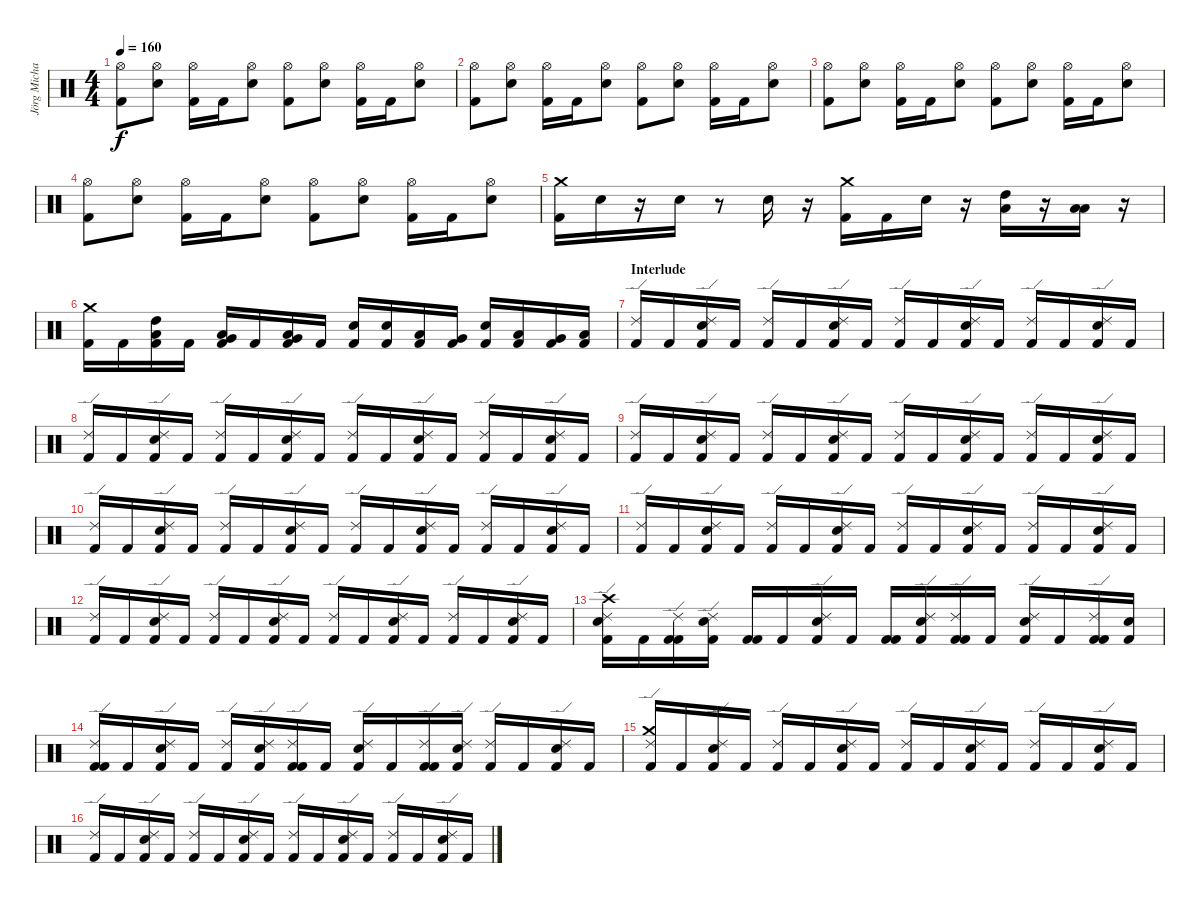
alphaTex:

\track ("Jörg Michael" "Jörg Micha") {instrument percussion}
\staff {score}
\articulation defaults
\ts (4 4)
\tempo 160
\clef neutral
\ks c
("Hi-Hat (open)" "Kick (hit) 2").8{dy f} ("Hi-Hat (open)" "Electric Snare (hit)").8 ("Hi-Hat (open)" "Kick (hit) 2").16 "Kick (hit) 2".16 ("Hi-Hat (open)" "Electric Snare (hit)").8 ("Hi-Hat (open)" "Kick (hit) 2").8 ("Hi-Hat (open)" "Electric Snare (hit)").8 ("Hi-Hat (open)" "Kick (hit) 2").16 "Kick (hit) 2".16 ("Hi-Hat (open)" "Electric Snare (hit)").8 |
("Hi-Hat (open)" "Kick (hit) 2").8 ("Hi-Hat (open)" "Electric Snare (hit)").8 ("Hi-Hat (open)" "Kick (hit) 2").16 "Kick (hit) 2".16 ("Hi-Hat (open)" "Electric Snare (hit)").8 ("Hi-Hat (open)" "Kick (hit) 2").8 ("Hi-Hat (open)" "Electric Snare (hit)").8 ("Hi-Hat (open)" "Kick (hit) 2").16 "Kick (hit) 2".16 ("Hi-Hat (open)" "Electric Snare (hit)").8 |
("Hi-Hat (open)" "Kick (hit) 2").8 ("Hi-Hat (open)" "Electric Snare (hit)").8 ("Hi-Hat (open)" "Kick (hit) 2").16 "Kick (hit) 2".16 ("Hi-Hat (open)" "Electric Snare (hit)").8 ("Hi-Hat (open)" "Kick (hit) 2").8 ("Hi-Hat (open)" "Electric Snare (hit)").8 ("Hi-Hat (open)" "Kick (hit) 2").16 "Kick (hit) 2".16 ("Hi-Hat (open)" "Electric Snare (hit)").8 |
("Hi-Hat (open)" "Kick (hit) 2").8 ("Hi-Hat (open)" "Electric Snare (hit)").8 ("Hi-Hat (open)" "Kick (hit) 2").16 "Kick (hit) 2".16 ("Hi-Hat (open)" "Electric Snare (hit)").8 ("Hi-Hat (open)" "Kick (hit) 2").8 ("Hi-Hat (open)" "Electric Snare (hit)").8 ("Hi-Hat (open)" "Kick (hit) 2").16 "Kick (hit) 2".16 ("Hi-Hat (open)" "Electric Snare (hit)").8 |
("Crash medium (hit)" "Kick (hit) 2").16 "Electric Snare (hit)".16 r.16 "Electric Snare (hit)".16 r.8 "Electric Snare (hit)".16 r.16 ("Crash medium (hit)" "Kick (hit) 2").16 "Kick (hit) 2".16 "Electric Snare (hit)".16 r.16 ("High Tom (hit)" "Low Tom (hit)").16 r.16 ("Low Floor Tom (hit)" "Low Tom (hit)").16 r.16 |
("Crash medium (hit)" "Kick (hit) 2").16 "Kick (hit) 2".16 ("Low Tom (hit)" "High Tom (hit)" "Kick (hit) 2").16 "Kick (hit) 2".16 ("Low Tom (hit)" "Very Low Tom (hit)" "Kick (hit) 2").16 "Kick (hit) 2".16 ("Very Low Tom (hit)" "Low Floor Tom (hit)" "Kick (hit) 2").16 "Kick (hit) 2".16 ("Electric Snare (hit)" "Kick (hit) 2").16 ("Electric Snare (hit)" "Kick (hit) 2").16 ("Low Tom (hit)" "Kick (hit) 2").16 ("Very Low Tom (hit)" "Kick (hit) 2").16 ("Electric Snare (hit)" "Kick (hit) 2").16 ("Low Tom (hit)" "Kick (hit) 2").16 ("Very Low Tom (hit)" "Kick (hit) 2").16 ("Low Floor Tom (hit)" "Kick (hit) 2").16 |
\section ("" "Interlude")
("Ride (edge) 2" "Kick (hit) 2").16 "Kick (hit) 2".16 ("Electric Snare (hit)" "Ride (edge) 2" "Kick (hit) 2").16 "Kick (hit) 2".16 ("Ride (edge) 2" "Kick (hit) 2").16 "Kick (hit) 2".16 ("Electric Snare (hit)" "Ride (edge) 2" "Kick (hit) 2").16 "Kick (hit) 2".16 ("Ride (edge) 2" "Kick (hit) 2").16 "Kick (hit) 2".16 ("Electric Snare (hit)" "Ride (edge) 2" "Kick (hit) 2").16 "Kick (hit) 2".16 ("Ride (edge) 2" "Kick (hit) 2").16 "Kick (hit) 2".16 ("Electric Snare (hit)" "Ride (edge) 2" "Kick (hit) 2").16 "Kick (hit) 2".16 |
("Ride (edge) 2" "Kick (hit) 2").16 "Kick (hit) 2".16 ("Electric Snare (hit)" "Ride (edge) 2" "Kick (hit) 2").16 "Kick (hit) 2".16 ("Ride (edge) 2" "Kick (hit) 2").16 "Kick (hit) 2".16 ("Electric Snare (hit)" "Ride (edge) 2" "Kick (hit) 2").16 "Kick (hit) 2".16 ("Ride (edge) 2" "Kick (hit) 2").16 "Kick (hit) 2".16 ("Electric Snare (hit)" "Ride (edge) 2" "Kick (hit) 2").16 "Kick (hit) 2".16 ("Ride (edge) 2" "Kick (hit) 2").16 "Kick (hit) 2".16 ("Electric Snare (hit)" "Ride (edge) 2" "Kick (hit) 2").16 "Kick (hit) 2".16 |
("Ride (edge) 2" "Kick (hit) 2").16 "Kick (hit) 2".16 ("Electric Snare (hit)" "Ride (edge) 2" "Kick (hit) 2").16 "Kick (hit) 2".16 ("Ride (edge) 2" "Kick (hit) 2").16 "Kick (hit) 2".16 ("Electric Snare (hit)" "Ride (edge) 2" "Kick (hit) 2").16 "Kick (hit) 2".16 ("Ride (edge) 2" "Kick (hit) 2").16 "Kick (hit) 2".16 ("Electric Snare (hit)" "Ride (edge) 2" "Kick (hit) 2").16 "Kick (hit) 2".16 ("Ride (edge) 2" "Kick (hit) 2").16 "Kick (hit) 2".16 ("Electric Snare (hit)" "Ride (edge) 2" "Kick (hit) 2").16 "Kick (hit) 2".16 |
("Ride (edge) 2" "Kick (hit) 2").16 "Kick (hit) 2".16 ("Electric Snare (hit)" "Ride (edge) 2" "Kick (hit) 2").16 "Kick (hit) 2".16 ("Ride (edge) 2" "Kick (hit) 2").16 "Kick (hit) 2".16 ("Electric Snare (hit)" "Ride (edge) 2" "Kick (hit) 2").16 "Kick (hit) 2".16 ("Ride (edge) 2" "Kick (hit) 2").16 "Kick (hit) 2".16 ("Electric Snare (hit)" "Ride (edge) 2" "Kick (hit) 2").16 "Kick (hit) 2".16 ("Ride (edge) 2" "Kick (hit) 2").16 "Kick (hit) 2".16 ("Electric Snare (hit)" "Ride (edge) 2" "Kick (hit) 2").16 "Kick (hit) 2".16 |
("Ride (edge) 2" "Kick (hit) 2").16 "Kick (hit) 2".16 ("Electric Snare (hit)" "Ride (edge) 2" "Kick (hit) 2").16 "Kick (hit) 2".16 ("Ride (edge) 2" "Kick (hit) 2").16 "Kick (hit) 2".16 ("Electric Snare (hit)" "Ride (edge) 2" "Kick (hit) 2").16 "Kick (hit) 2".16 ("Ride (edge) 2" "Kick (hit) 2").16 "Kick (hit) 2".16 ("Electric Snare (hit)" "Ride (edge) 2" "Kick (hit) 2").16 "Kick (hit) 2".16 ("Ride (edge) 2" "Kick (hit) 2").16 "Kick (hit) 2".16 ("Electric Snare (hit)" "Ride (edge) 2" "Kick (hit) 2").16 "Kick (hit) 2".16 |
("Ride (edge) 2" "Kick (hit) 2").16 "Kick (hit) 2".16 ("Electric Snare (hit)" "Ride (edge) 2" "Kick (hit) 2").16 "Kick (hit) 2".16 ("Ride (edge) 2" "Kick (hit) 2").16 "Kick (hit) 2".16 ("Electric Snare (hit)" "Ride (edge) 2" "Kick (hit) 2").16 "Kick (hit) 2".16 ("Ride (edge) 2" "Kick (hit) 2").16 "Kick (hit) 2".16 ("Electric Snare (hit)" "Ride (edge) 2" "Kick (hit) 2").16 "Kick (hit) 2".16 ("Ride (edge) 2" "Kick (hit) 2").16 "Kick (hit) 2".16 ("Electric Snare (hit)" "Ride (edge) 2" "Kick (hit) 2").16 "Kick (hit) 2".16 |
("Electric Snare (hit)" "Kick (hit) 2" "Ride (edge) 2" "Crash high (hit)").16 "Kick (hit) 2".16 ("Kick (hit) 2" "Ride (edge) 2" "Kick (hit) 2").16 ("Electric Snare (hit)" "Ride (edge) 2" "Kick (hit) 2").16 ("Kick (hit) 2" "Kick (hit) 2").16 "Kick (hit) 2".16 ("Electric Snare (hit)" "Ride (edge) 2" "Kick (hit) 2").16 "Kick (hit) 2".16 ("Kick (hit) 2" "Kick (hit) 2").16 ("Electric Snare (hit)" "Ride (edge) 2" "Kick (hit) 2").16 ("Kick (hit) 2" "Ride (edge) 2" "Kick (hit) 2").16 "Kick (hit) 2".16 ("Electric Snare (hit)" "Kick (hit) 2" "Ride (edge) 2").16 "Kick (hit) 2".16 ("Kick (hit) 2" "Ride (edge) 2" "Kick (hit) 2").16 ("Electric Snare (hit)" "Kick (hit) 2").16 |
("Kick (hit) 2" "Ride (edge) 2" "Kick (hit) 2").16 "Kick (hit) 2".16 ("Electric Snare (hit)" "Ride (edge) 2" "Kick (hit) 2").16 "Kick (hit) 2".16 ("Ride (edge) 2" "Kick (hit) 2").16 ("Electric Snare (hit)" "Ride (edge) 2" "Kick (hit) 2").16 ("Kick (hit) 2" "Ride (edge) 2" "Kick (hit) 2").16 "Kick (hit) 2".16 ("Electric Snare (hit)" "Kick (hit) 2" "Ride (edge) 2").16 "Kick (hit) 2".16 ("Kick (hit) 2" "Ride (edge) 2" "Kick (hit) 2").16 ("Electric Snare (hit)" "Ride (edge) 2" "Kick (hit) 2").16 ("Ride (edge) 2" "Kick (hit) 2").16 "Kick (hit) 2".16 ("Electric Snare (hit)" "Ride (edge) 2" "Kick (hit) 2").16 "Kick (hit) 2".16 |
("Crash medium (hit)" "Ride (edge) 2" "Kick (hit) 2").16 "Kick (hit) 2".16 ("Electric Snare (hit)" "Ride (edge) 2" "Kick (hit) 2").16 "Kick (hit) 2".16 ("Ride (edge) 2" "Kick (hit) 2").16 "Kick (hit) 2".16 ("Electric Snare (hit)" "Ride (edge) 2" "Kick (hit) 2").16 "Kick (hit) 2".16 ("Ride (edge) 2" "Kick (hit) 2").16 "Kick (hit) 2".16 ("Electric Snare (hit)" "Ride (edge) 2" "Kick (hit) 2").16 "Kick (hit) 2".16 ("Ride (edge) 2" "Kick (hit) 2").16 "Kick (hit) 2".16 ("Electric Snare (hit)" "Ride (edge) 2" "Kick (hit) 2").16 "Kick (hit) 2".16 |
("Ride (edge) 2" "Kick (hit) 2").16 "Kick (hit) 2".16 ("Electric Snare (hit)" "Ride (edge) 2" "Kick (hit) 2").16 "Kick (hit) 2".16 ("Ride (edge) 2" "Kick (hit) 2").16 "Kick (hit) 2".16 ("Electric Snare (hit)" "Ride (edge) 2" "Kick (hit) 2").16 "Kick (hit) 2".16 ("Ride (edge) 2" "Kick (hit) 2").16 "Kick (hit) 2".16 ("Electric Snare (hit)" "Ride (edge) 2" "Kick (hit) 2").16 "Kick (hit) 2".16 ("Ride (edge) 2" "Kick (hit) 2").16 "Kick (hit) 2".16 ("Electric Snare (hit)" "Ride (edge) 2" "Kick (hit) 2").16 "Kick (hit) 2".16
